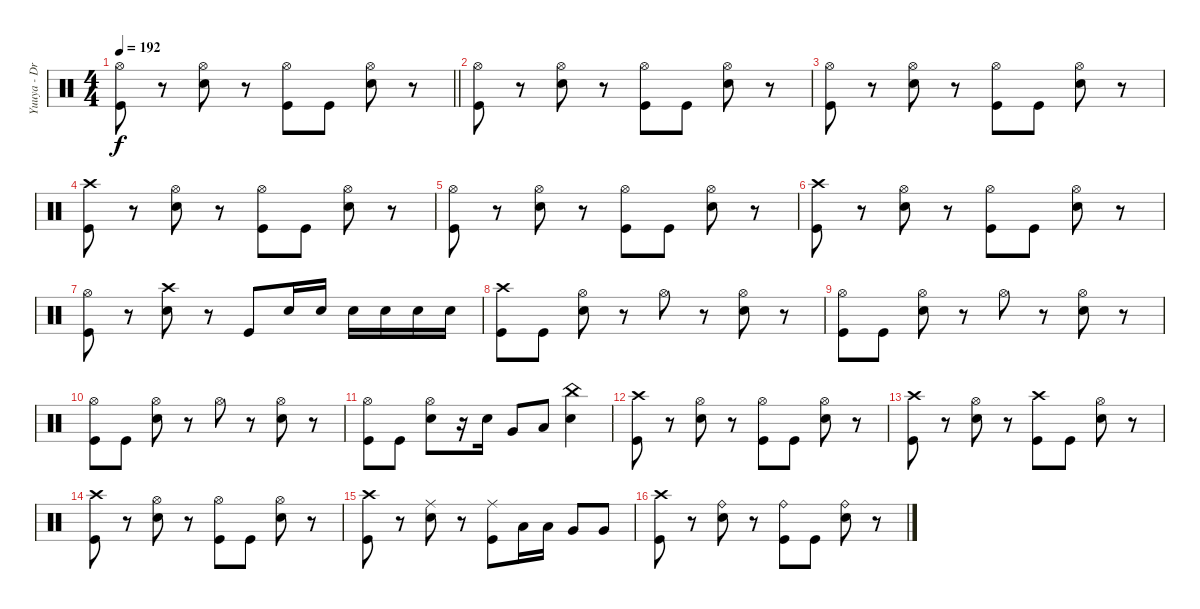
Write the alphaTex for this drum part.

\track ("Yuuya - Drums" "Yuuya - Dr") {instrument percussion}
\staff {score}
\articulation defaults
\ts (4 4)
\tempo 192
\clef neutral
\barLineRight lightlight
\ks c
("Kick (hit)" "Hi-Hat (open)").8{dy f} r.8 ("Electric Snare (hit)" "Hi-Hat (open)").8 r.8 ("Kick (hit)" "Hi-Hat (open)").8 "Kick (hit)".8 ("Electric Snare (hit)" "Hi-Hat (open)").8 r.8 |
("Kick (hit)" "Hi-Hat (open)").8 r.8 ("Electric Snare (hit)" "Hi-Hat (open)").8 r.8 ("Kick (hit)" "Hi-Hat (open)").8 "Kick (hit)".8 ("Electric Snare (hit)" "Hi-Hat (open)").8 r.8 |
("Kick (hit)" "Hi-Hat (open)").8 r.8 ("Electric Snare (hit)" "Hi-Hat (open)").8 r.8 ("Kick (hit)" "Hi-Hat (open)").8 "Kick (hit)".8 ("Electric Snare (hit)" "Hi-Hat (open)").8 r.8 |
("Kick (hit)" "Crash high (hit)").8 r.8 ("Electric Snare (hit)" "Hi-Hat (open)").8 r.8 ("Kick (hit)" "Hi-Hat (open)").8 "Kick (hit)".8 ("Electric Snare (hit)" "Hi-Hat (open)").8 r.8 |
("Kick (hit)" "Hi-Hat (open)").8 r.8 ("Electric Snare (hit)" "Hi-Hat (open)").8 r.8 ("Kick (hit)" "Hi-Hat (open)").8 "Kick (hit)".8 ("Electric Snare (hit)" "Hi-Hat (open)").8 r.8 |
("Kick (hit)" "Crash high (hit)").8 r.8 ("Electric Snare (hit)" "Hi-Hat (open)").8 r.8 ("Kick (hit)" "Hi-Hat (open)").8 "Kick (hit)".8 ("Electric Snare (hit)" "Hi-Hat (open)").8 r.8 |
("Kick (hit)" "Hi-Hat (open)").8 r.8 ("Electric Snare (hit)" "Crash high (hit)").8 r.8 "Kick (hit)".8 "Electric Snare (hit)".16 "Electric Snare (hit)".16 "Electric Snare (hit)".16 "Electric Snare (hit)".16 "Electric Snare (hit)".16 "Electric Snare (hit)".16 |
("Kick (hit)" "Crash high (hit)").8 "Kick (hit)".8 ("Electric Snare (hit)" "Hi-Hat (open)").8 r.8 "Hi-Hat (open)".8 r.8 ("Electric Snare (hit)" "Hi-Hat (open)").8 r.8 |
("Kick (hit)" "Hi-Hat (open)").8 "Kick (hit)".8 ("Electric Snare (hit)" "Hi-Hat (open)").8 r.8 "Hi-Hat (open)".8 r.8 ("Electric Snare (hit)" "Hi-Hat (open)").8 r.8 |
("Kick (hit)" "Hi-Hat (open)").8 "Kick (hit)".8 ("Electric Snare (hit)" "Hi-Hat (open)").8 r.8 "Hi-Hat (open)".8 r.8 ("Electric Snare (hit)" "Hi-Hat (open)").8 r.8 |
("Kick (hit)" "Hi-Hat (open)").8 "Kick (hit)".8 ("Electric Snare (hit)" "Hi-Hat (open)").8 r.16 "Electric Snare (hit)".16 "Very Low Tom (hit)".8 "Low Floor Tom (hit)".8 ("Electric Snare (hit)" "China (hit)").4 |
("Kick (hit)" "Crash high (hit)").8 r.8 ("Electric Snare (hit)" "Hi-Hat (open)").8 r.8 ("Kick (hit)" "Hi-Hat (open)").8 "Kick (hit)".8 ("Electric Snare (hit)" "Hi-Hat (open)").8 r.8 |
("Kick (hit)" "Crash high (hit)").8 r.8 ("Electric Snare (hit)" "Hi-Hat (open)").8 r.8 ("Kick (hit)" "Crash high (hit)").8 "Kick (hit)".8 ("Electric Snare (hit)" "Hi-Hat (open)").8 r.8 |
("Kick (hit)" "Crash high (hit)").8 r.8 ("Electric Snare (hit)" "Hi-Hat (open)").8 r.8 ("Kick (hit)" "Hi-Hat (open)").8 "Kick (hit)".8 ("Electric Snare (hit)" "Hi-Hat (open)").8 r.8 |
("Kick (hit)" "Crash high (hit)").8 r.8 ("Electric Snare (hit)" "Ride (middle)").8 r.8 ("Kick (hit)" "Ride (middle)").8 "Low Tom (hit)".16 "Low Tom (hit)".16 "Very Low Tom (hit)".8 "Very Low Tom (hit)".8 |
("Kick (hit)" "Crash high (hit)").8 r.8 ("Electric Snare (hit)" "Ride (bell)").8 r.8 ("Kick (hit)" "Ride (bell)").8 "Kick (hit)".8 ("Electric Snare (hit)" "Ride (bell)").8 r.8
